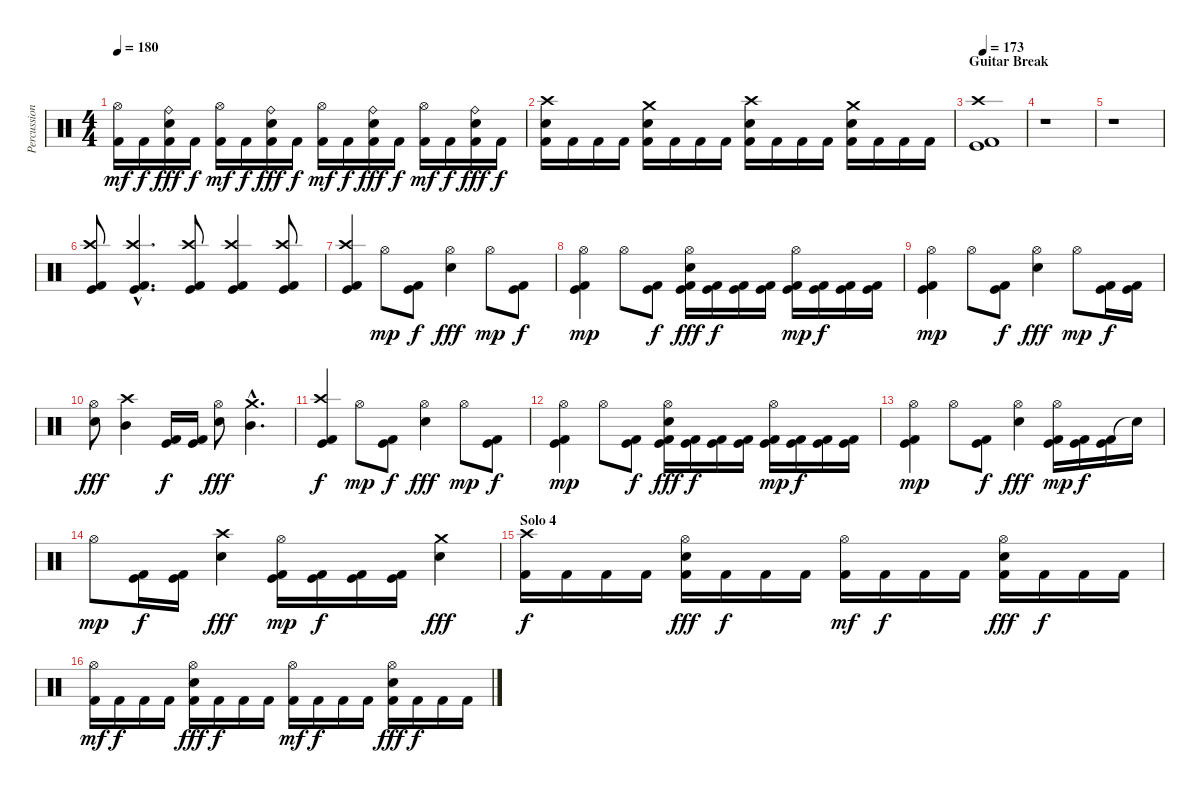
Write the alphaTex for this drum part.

\track ("Percussion" "Percussion") {instrument percussion}
\staff {score}
\articulation defaults
\ts (4 4)
\tempo 180
\clef neutral
\ks c
("Hi-Hat (open)" "Kick (hit) 2").16{dy mf} "Kick (hit) 2".16{dy f} ("Ride (bell)" "Snare (hit) 2" "Kick (hit) 2").16{dy fff} "Kick (hit) 2".16{dy f} ("Hi-Hat (open)" "Kick (hit) 2").16{dy mf} "Kick (hit) 2".16{dy f} ("Ride (bell)" "Snare (hit) 2" "Kick (hit) 2").16{dy fff} "Kick (hit) 2".16{dy f} ("Hi-Hat (open)" "Kick (hit) 2").16{dy mf} "Kick (hit) 2".16{dy f} ("Ride (bell)" "Snare (hit) 2" "Kick (hit) 2").16{dy fff} "Kick (hit) 2".16{dy f} ("Hi-Hat (open)" "Kick (hit) 2").16{dy mf} "Kick (hit) 2".16{dy f} ("Ride (bell)" "Snare (hit) 2" "Kick (hit) 2").16{dy fff} "Kick (hit) 2".16{dy f} |
("Crash high (hit)" "Snare (hit) 2" "Kick (hit) 2").16 "Kick (hit) 2".16 "Kick (hit) 2".16 "Kick (hit) 2".16 ("Crash medium (hit)" "Snare (hit) 2" "Kick (hit) 2").16 "Kick (hit) 2".16 "Kick (hit) 2".16 "Kick (hit) 2".16 ("Crash high (hit)" "Snare (hit) 2" "Kick (hit) 2").16 "Kick (hit) 2".16 "Kick (hit) 2".16 "Kick (hit) 2".16 ("Crash medium (hit)" "Snare (hit) 2" "Kick (hit) 2").16 "Kick (hit) 2".16 "Kick (hit) 2".16 "Kick (hit) 2".16 |
\section ("" "Guitar Break")
\tempo 173
("Crash high (hit)" "Kick (hit)" "Kick (hit) 2").1 |
r.1 |
r.1 |
("Crash high (hit)" "Kick (hit)" "Kick (hit) 2").8 ("Crash high (hit)"{hac} "Kick (hit)"{hac} "Kick (hit) 2"{hac}).4{d} ("Crash high (hit)" "Kick (hit)" "Kick (hit) 2").8 ("Crash high (hit)" "Kick (hit)" "Kick (hit) 2").4 ("Crash high (hit)" "Kick (hit)" "Kick (hit) 2").8 |
("Crash high (hit)" "Kick (hit)" "Kick (hit) 2").4 "Hi-Hat (open)".8{dy mp} ("Kick (hit)" "Kick (hit) 2").8{dy f} ("Hi-Hat (open)" "Snare (hit) 2").4{dy fff} "Hi-Hat (open)".8{dy mp} ("Kick (hit)" "Kick (hit) 2").8{dy f} |
("Hi-Hat (open)" "Kick (hit)" "Kick (hit) 2").4{dy mp} "Hi-Hat (open)".8 ("Kick (hit)" "Kick (hit) 2").8{dy f} ("Hi-Hat (open)" "Snare (hit) 2" "Kick (hit)" "Kick (hit) 2").16{dy fff} ("Kick (hit)" "Kick (hit) 2").16{dy f} ("Kick (hit)" "Kick (hit) 2").16 ("Kick (hit)" "Kick (hit) 2").16 ("Hi-Hat (open)" "Kick (hit)" "Kick (hit) 2").16{dy mp} ("Kick (hit)" "Kick (hit) 2").16{dy f} ("Kick (hit)" "Kick (hit) 2").16 ("Kick (hit)" "Kick (hit) 2").16 |
("Hi-Hat (open)" "Kick (hit)" "Kick (hit) 2").4{dy mp} "Hi-Hat (open)".8 ("Kick (hit)" "Kick (hit) 2").8{dy f} ("Hi-Hat (open)" "Snare (hit) 2").4{dy fff} "Hi-Hat (open)".8{dy mp} ("Kick (hit)" "Kick (hit) 2").16{dy f} ("Kick (hit)" "Kick (hit) 2").16 |
("Hi-Hat (open)" "Snare (hit) 2").8{dy fff} ("Crash high (hit)" "Mid Tom (hit)").4 ("Kick (hit)" "Kick (hit) 2").16{dy f} ("Kick (hit)" "Kick (hit) 2").16 ("Hi-Hat (open)" "Snare (hit) 2").8{dy fff} ("Crash medium (hit)"{hac} "Mid Tom (hit)"{hac}).4{d} |
("Crash high (hit)" "Kick (hit)" "Kick (hit) 2").4{dy f} "Hi-Hat (open)".8{dy mp} ("Kick (hit)" "Kick (hit) 2").8{dy f} ("Hi-Hat (open)" "Snare (hit) 2").4{dy fff} "Hi-Hat (open)".8{dy mp} ("Kick (hit)" "Kick (hit) 2").8{dy f} |
("Hi-Hat (open)" "Kick (hit)" "Kick (hit) 2").4{dy mp} "Hi-Hat (open)".8 ("Kick (hit)" "Kick (hit) 2").8{dy f} ("Hi-Hat (open)" "Snare (hit) 2" "Kick (hit)" "Kick (hit) 2").16{dy fff} ("Kick (hit)" "Kick (hit) 2").16{dy f} ("Kick (hit)" "Kick (hit) 2").16 ("Kick (hit)" "Kick (hit) 2").16 ("Hi-Hat (open)" "Kick (hit)" "Kick (hit) 2").16{dy mp} ("Kick (hit)" "Kick (hit) 2").16{dy f} ("Kick (hit)" "Kick (hit) 2").16 ("Kick (hit)" "Kick (hit) 2").16 |
("Hi-Hat (open)" "Kick (hit)" "Kick (hit) 2").4{dy mp} "Hi-Hat (open)".8 ("Kick (hit)" "Kick (hit) 2").8{dy f} ("Hi-Hat (open)" "Snare (hit) 2").4{dy fff} ("Hi-Hat (open)" "Kick (hit)" "Kick (hit) 2").16{dy mp} ("Kick (hit)" "Kick (hit) 2").16{dy f} ("Kick (hit)" "Kick (hit) 2").16 "Snare (hit)"{t}.16 |
"Hi-Hat (open)".8{dy mp} ("Kick (hit)" "Kick (hit) 2").16{dy f} ("Kick (hit)" "Kick (hit) 2").16 ("Crash high (hit)" "Snare (hit) 2").4{dy fff} ("Hi-Hat (open)" "Kick (hit)" "Kick (hit) 2").16{dy mp} ("Kick (hit)" "Kick (hit) 2").16{dy f} ("Kick (hit)" "Kick (hit) 2").16 ("Kick (hit)" "Kick (hit) 2").16 ("Crash medium (hit)" "Snare (hit) 2").4{dy fff} |
\section ("" "Solo 4")
("Crash high (hit)" "Kick (hit) 2").16{dy f} "Kick (hit) 2".16 "Kick (hit) 2".16 "Kick (hit) 2".16 ("Hi-Hat (open)" "Snare (hit) 2" "Kick (hit) 2").16{dy fff} "Kick (hit) 2".16{dy f} "Kick (hit) 2".16 "Kick (hit) 2".16 ("Hi-Hat (open)" "Kick (hit) 2").16{dy mf} "Kick (hit) 2".16{dy f} "Kick (hit) 2".16 "Kick (hit) 2".16 ("Hi-Hat (open)" "Snare (hit) 2" "Kick (hit) 2").16{dy fff} "Kick (hit) 2".16{dy f} "Kick (hit) 2".16 "Kick (hit) 2".16 |
("Hi-Hat (open)" "Kick (hit) 2").16{dy mf} "Kick (hit) 2".16{dy f} "Kick (hit) 2".16 "Kick (hit) 2".16 ("Hi-Hat (open)" "Snare (hit) 2" "Kick (hit) 2").16{dy fff} "Kick (hit) 2".16{dy f} "Kick (hit) 2".16 "Kick (hit) 2".16 ("Hi-Hat (open)" "Kick (hit) 2").16{dy mf} "Kick (hit) 2".16{dy f} "Kick (hit) 2".16 "Kick (hit) 2".16 ("Hi-Hat (open)" "Snare (hit) 2" "Kick (hit) 2").16{dy fff} "Kick (hit) 2".16{dy f} "Kick (hit) 2".16 "Kick (hit) 2".16
